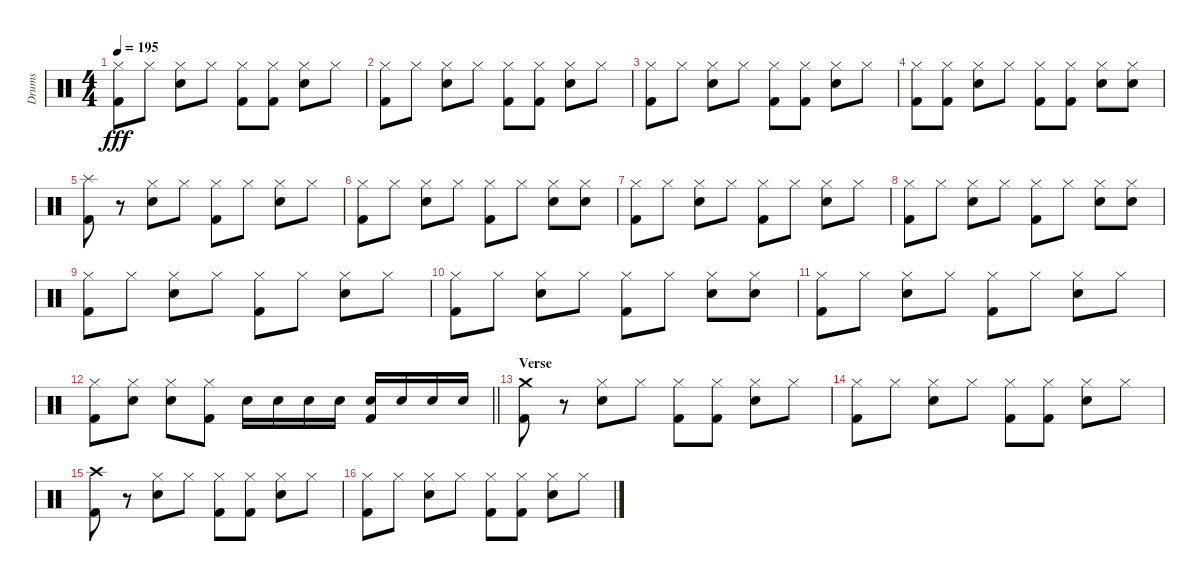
\track ("Drums" "Drums") {instrument percussion}
\staff {score}
\articulation defaults
\ts (4 4)
\tempo 195
\clef neutral
\ks c
("Hi-Hat (closed)" "Kick (hit) 2").8{dy fff} "Hi-Hat (closed)".8 ("Hi-Hat (closed)" "Snare (hit) 2").8 "Hi-Hat (closed)".8 ("Hi-Hat (closed)" "Kick (hit) 2").8 ("Hi-Hat (closed)" "Kick (hit) 2").8 ("Hi-Hat (closed)" "Snare (hit) 2").8 "Hi-Hat (closed)".8 |
("Hi-Hat (closed)" "Kick (hit) 2").8 "Hi-Hat (closed)".8 ("Hi-Hat (closed)" "Snare (hit) 2").8 "Hi-Hat (closed)".8 ("Hi-Hat (closed)" "Kick (hit) 2").8 ("Hi-Hat (closed)" "Kick (hit) 2").8 ("Hi-Hat (closed)" "Snare (hit) 2").8 "Hi-Hat (closed)".8 |
("Hi-Hat (closed)" "Kick (hit) 2").8 "Hi-Hat (closed)".8 ("Hi-Hat (closed)" "Snare (hit) 2").8 "Hi-Hat (closed)".8 ("Hi-Hat (closed)" "Kick (hit) 2").8 ("Hi-Hat (closed)" "Kick (hit) 2").8 ("Hi-Hat (closed)" "Snare (hit) 2").8 "Hi-Hat (closed)".8 |
("Hi-Hat (closed)" "Kick (hit) 2").8 ("Hi-Hat (closed)" "Kick (hit) 2").8 ("Hi-Hat (closed)" "Snare (hit) 2").8 "Hi-Hat (closed)".8 ("Hi-Hat (closed)" "Kick (hit) 2").8 ("Hi-Hat (closed)" "Kick (hit) 2").8 ("Hi-Hat (closed)" "Snare (hit) 2").8 ("Hi-Hat (closed)" "Snare (hit) 2").8 |
("Splash (hit)" "Kick (hit) 2").8 r.8 ("Hi-Hat (closed)" "Snare (hit) 2").8 "Hi-Hat (closed)".8 ("Hi-Hat (closed)" "Kick (hit) 2").8 "Hi-Hat (closed)".8 ("Hi-Hat (closed)" "Snare (hit) 2").8 "Hi-Hat (closed)".8 |
("Hi-Hat (closed)" "Kick (hit) 2").8 "Hi-Hat (closed)".8 ("Hi-Hat (closed)" "Snare (hit) 2").8 "Hi-Hat (closed)".8 ("Hi-Hat (closed)" "Kick (hit) 2").8 "Hi-Hat (closed)".8 ("Hi-Hat (closed)" "Snare (hit) 2").8 ("Hi-Hat (closed)" "Snare (hit) 2").8 |
("Hi-Hat (closed)" "Kick (hit) 2").8 "Hi-Hat (closed)".8 ("Hi-Hat (closed)" "Snare (hit) 2").8 "Hi-Hat (closed)".8 ("Hi-Hat (closed)" "Kick (hit) 2").8 "Hi-Hat (closed)".8 ("Hi-Hat (closed)" "Snare (hit) 2").8 "Hi-Hat (closed)".8 |
("Hi-Hat (closed)" "Kick (hit) 2").8 "Hi-Hat (closed)".8 ("Hi-Hat (closed)" "Snare (hit) 2").8 "Hi-Hat (closed)".8 ("Hi-Hat (closed)" "Kick (hit) 2").8 "Hi-Hat (closed)".8 ("Hi-Hat (closed)" "Snare (hit) 2").8 ("Hi-Hat (closed)" "Snare (hit) 2").8 |
("Hi-Hat (closed)" "Kick (hit) 2").8 "Hi-Hat (closed)".8 ("Hi-Hat (closed)" "Snare (hit) 2").8 "Hi-Hat (closed)".8 ("Hi-Hat (closed)" "Kick (hit) 2").8 "Hi-Hat (closed)".8 ("Hi-Hat (closed)" "Snare (hit) 2").8 "Hi-Hat (closed)".8 |
("Hi-Hat (closed)" "Kick (hit) 2").8 "Hi-Hat (closed)".8 ("Hi-Hat (closed)" "Snare (hit) 2").8 "Hi-Hat (closed)".8 ("Hi-Hat (closed)" "Kick (hit) 2").8 "Hi-Hat (closed)".8 ("Hi-Hat (closed)" "Snare (hit) 2").8 ("Hi-Hat (closed)" "Snare (hit) 2").8 |
("Hi-Hat (closed)" "Kick (hit) 2").8 "Hi-Hat (closed)".8 ("Hi-Hat (closed)" "Snare (hit) 2").8 "Hi-Hat (closed)".8 ("Hi-Hat (closed)" "Kick (hit) 2").8 "Hi-Hat (closed)".8 ("Hi-Hat (closed)" "Snare (hit) 2").8 "Hi-Hat (closed)".8 |
\barLineRight lightlight
("Hi-Hat (closed)" "Kick (hit) 2").8 ("Hi-Hat (closed)" "Snare (hit) 2").8 ("Hi-Hat (closed)" "Snare (hit) 2").8 ("Hi-Hat (closed)" "Kick (hit) 2").8 "Snare (hit) 2".16 "Snare (hit) 2".16 "Snare (hit) 2".16 "Snare (hit) 2".16 ("Snare (hit) 2" "Kick (hit) 2").16 "Snare (hit) 2".16 "Snare (hit) 2".16 "Snare (hit) 2".16 |
\section ("" "Verse")
("Crash medium (hit)" "Kick (hit) 2").8 r.8 ("Hi-Hat (closed)" "Snare (hit) 2").8 "Hi-Hat (closed)".8 ("Hi-Hat (closed)" "Kick (hit) 2").8 ("Hi-Hat (closed)" "Kick (hit) 2").8 ("Hi-Hat (closed)" "Snare (hit) 2").8 "Hi-Hat (closed)".8 |
("Hi-Hat (closed)" "Kick (hit) 2").8 "Hi-Hat (closed)".8 ("Hi-Hat (closed)" "Snare (hit) 2").8 "Hi-Hat (closed)".8 ("Hi-Hat (closed)" "Kick (hit) 2").8 ("Hi-Hat (closed)" "Kick (hit) 2").8 ("Hi-Hat (closed)" "Snare (hit) 2").8 "Hi-Hat (closed)".8 |
("Crash high (hit)" "Kick (hit) 2").8 r.8 ("Hi-Hat (closed)" "Snare (hit) 2").8 "Hi-Hat (closed)".8 ("Hi-Hat (closed)" "Kick (hit) 2").8 ("Hi-Hat (closed)" "Kick (hit) 2").8 ("Hi-Hat (closed)" "Snare (hit) 2").8 "Hi-Hat (closed)".8 |
("Hi-Hat (closed)" "Kick (hit) 2").8 "Hi-Hat (closed)".8 ("Hi-Hat (closed)" "Snare (hit) 2").8 "Hi-Hat (closed)".8 ("Hi-Hat (closed)" "Kick (hit) 2").8 ("Hi-Hat (closed)" "Kick (hit) 2").8 ("Hi-Hat (closed)" "Snare (hit) 2").8 "Hi-Hat (closed)".8
